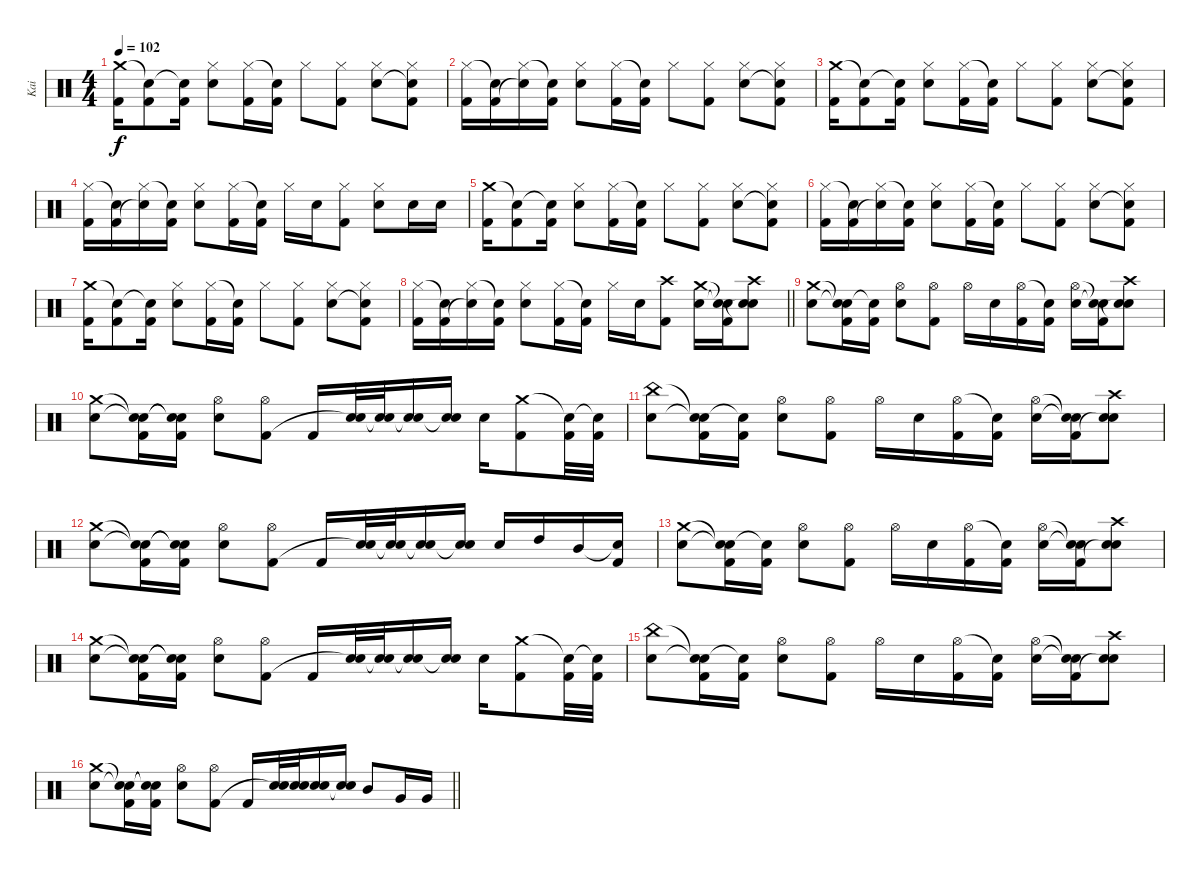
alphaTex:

\track ("Kai" "Kai") {instrument percussion}
\staff {score}
\articulation defaults
\ts (4 4)
\tempo 102
\clef neutral
\ks c
("Crash medium (hit)" "Kick (hit) 2").16{dy f} ("Snare (hit)"{t} "Kick (hit) 2").8 ("Snare (hit)"{t} "Kick (hit) 2").16 ("Hi-Hat (closed)" "Snare (hit) 2").8 ("Hi-Hat (closed)" "Kick (hit) 2").16 ("Snare (hit)"{t} "Kick (hit) 2").16 "Hi-Hat (closed)".8 ("Hi-Hat (closed)" "Kick (hit) 2").8 ("Hi-Hat (closed)" "Snare (hit) 2").8 ("Hi-Hat (closed)" "Snare (hit) 2"{t} "Kick (hit) 2").8 |
("Hi-Hat (closed)" "Kick (hit) 2").16 ("Snare (hit)"{t} "Kick (hit) 2").16 ("Hi-Hat (closed)" "Snare (hit)"{t}).16 ("Snare (hit)"{t} "Kick (hit) 2").16 ("Hi-Hat (closed)" "Snare (hit) 2").8 ("Hi-Hat (closed)" "Kick (hit) 2").16 ("Snare (hit)"{t} "Kick (hit) 2").16 "Hi-Hat (closed)".8 ("Hi-Hat (closed)" "Kick (hit) 2").8 ("Hi-Hat (closed)" "Snare (hit) 2").8 ("Hi-Hat (closed)" "Snare (hit) 2"{t} "Kick (hit) 2").8 |
("Crash medium (hit)" "Kick (hit) 2").16 ("Snare (hit)"{t} "Kick (hit) 2").8 ("Snare (hit)"{t} "Kick (hit) 2").16 ("Hi-Hat (closed)" "Snare (hit) 2").8 ("Hi-Hat (closed)" "Kick (hit) 2").16 ("Snare (hit)"{t} "Kick (hit) 2").16 "Hi-Hat (closed)".8 ("Hi-Hat (closed)" "Kick (hit) 2").8 ("Hi-Hat (closed)" "Snare (hit) 2").8 ("Hi-Hat (closed)" "Snare (hit) 2"{t} "Kick (hit) 2").8 |
("Hi-Hat (closed)" "Kick (hit) 2").16 ("Snare (hit)"{t} "Kick (hit) 2").16 ("Hi-Hat (closed)" "Snare (hit)"{t}).16 ("Snare (hit)"{t} "Kick (hit) 2").16 ("Hi-Hat (closed)" "Snare (hit) 2").8 ("Hi-Hat (closed)" "Kick (hit) 2").16 ("Snare (hit)"{t} "Kick (hit) 2").16 "Hi-Hat (closed)".16 "Snare (hit) 2".16 ("Hi-Hat (closed)" "Kick (hit) 2").8 ("Hi-Hat (closed)" "Snare (hit) 2").8 "Snare (hit) 2".16 "Snare (hit) 2".16 |
("Crash medium (hit)" "Kick (hit) 2").16 ("Snare (hit)"{t} "Kick (hit) 2").8 ("Snare (hit)"{t} "Kick (hit) 2").16 ("Hi-Hat (closed)" "Snare (hit) 2").8 ("Hi-Hat (closed)" "Kick (hit) 2").16 ("Snare (hit)"{t} "Kick (hit) 2").16 "Hi-Hat (closed)".8 ("Hi-Hat (closed)" "Kick (hit) 2").8 ("Hi-Hat (closed)" "Snare (hit) 2").8 ("Hi-Hat (closed)" "Snare (hit) 2"{t} "Kick (hit) 2").8 |
("Hi-Hat (closed)" "Kick (hit) 2").16 ("Snare (hit)"{t} "Kick (hit) 2").16 ("Hi-Hat (closed)" "Snare (hit)"{t}).16 ("Snare (hit)"{t} "Kick (hit) 2").16 ("Hi-Hat (closed)" "Snare (hit) 2").8 ("Hi-Hat (closed)" "Kick (hit) 2").16 ("Snare (hit)"{t} "Kick (hit) 2").16 "Hi-Hat (closed)".8 ("Hi-Hat (closed)" "Kick (hit) 2").8 ("Hi-Hat (closed)" "Snare (hit) 2").8 ("Hi-Hat (closed)" "Snare (hit) 2"{t} "Kick (hit) 2").8 |
("Crash medium (hit)" "Kick (hit) 2").16 ("Snare (hit)"{t} "Kick (hit) 2").8 ("Snare (hit)"{t} "Kick (hit) 2").16 ("Hi-Hat (closed)" "Snare (hit) 2").8 ("Hi-Hat (closed)" "Kick (hit) 2").16 ("Snare (hit)"{t} "Kick (hit) 2").16 "Hi-Hat (closed)".8 ("Hi-Hat (closed)" "Kick (hit) 2").8 ("Hi-Hat (closed)" "Snare (hit) 2").8 ("Hi-Hat (closed)" "Snare (hit) 2"{t} "Kick (hit) 2").8 |
\barLineRight lightlight
("Hi-Hat (closed)" "Kick (hit) 2").16 ("Snare (hit)"{t} "Kick (hit) 2").16 ("Hi-Hat (closed)" "Snare (hit)"{t}).16 ("Snare (hit)"{t} "Kick (hit) 2").16 ("Hi-Hat (closed)" "Snare (hit) 2").8 ("Hi-Hat (closed)" "Kick (hit) 2").16 ("Snare (hit)"{t} "Kick (hit) 2").16 "Hi-Hat (closed)".16 "Snare (hit) 2".16 ("Crash high (hit)" "Kick (hit) 2").8 ("Crash medium (hit)" "Snare (hit) 2").16 ("Snare (hit)"{t} "Snare (hit)"{t} "Kick (hit) 2").16 ("Crash high (hit)" "Snare (hit) 2" "Snare (hit)"{t}).8 |
("Crash medium (hit)" "Snare (hit) 2").8 ("Snare (hit)"{t} "Snare (hit)"{t} "Kick (hit) 2").16 ("Snare (hit)"{t} "Kick (hit) 2").16 ("Hi-Hat (open)" "Snare (hit) 2").8 ("Hi-Hat (open)" "Kick (hit) 2").8 "Hi-Hat (open)".16 "Snare (hit) 2".16 ("Hi-Hat (open)" "Kick (hit) 2").16 ("Snare (hit)"{t} "Kick (hit) 2").16 ("Hi-Hat (open)" "Snare (hit) 2").16 ("Snare (hit)"{t} "Snare (hit)"{t} "Kick (hit) 2").16 ("Crash high (hit)" "Snare (hit) 2" "Snare (hit)"{t}).8 |
("Crash medium (hit)" "Snare (hit) 2").8 ("Snare (hit)"{t} "Snare (hit)"{t} "Kick (hit) 2").16 ("Snare (hit)"{t} "Snare (hit)"{t} "Kick (hit) 2").16 ("Hi-Hat (open)" "Snare (hit) 2").8 ("Hi-Hat (open)" "Kick (hit) 2").8 "Kick (hit) 2".16 ("Snare (hit) 2" "Snare (hit)"{t}).32 ("Snare (hit) 2" "Snare (hit)"{t}).32 ("Snare (hit) 2" "Snare (hit)"{t}).16 ("Snare (hit) 2" "Snare (hit)"{t}).16 "Snare (hit) 2".16 ("Crash medium (hit)" "Kick (hit) 2").8 ("Snare (hit)"{t} "Kick (hit) 2").32 ("Snare (hit)"{t} "Kick (hit) 2").32 |
("China (hit)" "Snare (hit) 2").8 ("Snare (hit)"{t} "Snare (hit)"{t} "Kick (hit) 2").16 ("Snare (hit)"{t} "Kick (hit) 2").16 ("Hi-Hat (open)" "Snare (hit) 2").8 ("Hi-Hat (open)" "Kick (hit) 2").8 "Hi-Hat (open)".16 "Snare (hit) 2".16 ("Hi-Hat (open)" "Kick (hit) 2").16 ("Snare (hit)"{t} "Kick (hit) 2").16 ("Hi-Hat (open)" "Snare (hit) 2").16 ("Snare (hit)"{t} "Snare (hit)"{t} "Kick (hit) 2").16 ("Crash high (hit)" "Snare (hit) 2" "Snare (hit)"{t}).8 |
("Crash medium (hit)" "Snare (hit) 2").8 ("Snare (hit)"{t} "Snare (hit)"{t} "Kick (hit) 2").16 ("Snare (hit)"{t} "Snare (hit)"{t} "Kick (hit) 2").16 ("Hi-Hat (open)" "Snare (hit) 2").8 ("Hi-Hat (open)" "Kick (hit) 2").8 "Kick (hit) 2".16 ("Snare (hit) 2" "Snare (hit)"{t}).32 ("Snare (hit) 2" "Snare (hit)"{t}).32 ("Snare (hit) 2" "Snare (hit)"{t}).16 ("Snare (hit) 2" "Snare (hit)"{t}).16 "Snare (hit) 2".16 "High Tom (hit)".16 "Mid Tom (hit)".16 ("Snare (hit)"{t} "Kick (hit) 2").16 |
("Crash medium (hit)" "Snare (hit) 2").8 ("Snare (hit)"{t} "Snare (hit)"{t} "Kick (hit) 2").16 ("Snare (hit)"{t} "Kick (hit) 2").16 ("Hi-Hat (open)" "Snare (hit) 2").8 ("Hi-Hat (open)" "Kick (hit) 2").8 "Hi-Hat (open)".16 "Snare (hit) 2".16 ("Hi-Hat (open)" "Kick (hit) 2").16 ("Snare (hit)"{t} "Kick (hit) 2").16 ("Hi-Hat (open)" "Snare (hit) 2").16 ("Snare (hit)"{t} "Snare (hit)"{t} "Kick (hit) 2").16 ("Crash high (hit)" "Snare (hit) 2" "Snare (hit)"{t}).8 |
("Crash medium (hit)" "Snare (hit) 2").8 ("Snare (hit)"{t} "Snare (hit)"{t} "Kick (hit) 2").16 ("Snare (hit)"{t} "Snare (hit)"{t} "Kick (hit) 2").16 ("Hi-Hat (open)" "Snare (hit) 2").8 ("Hi-Hat (open)" "Kick (hit) 2").8 "Kick (hit) 2".16 ("Snare (hit) 2" "Snare (hit)"{t}).32 ("Snare (hit) 2" "Snare (hit)"{t}).32 ("Snare (hit) 2" "Snare (hit)"{t}).16 ("Snare (hit) 2" "Snare (hit)"{t}).16 "Snare (hit) 2".16 ("Crash medium (hit)" "Kick (hit) 2").8 ("Snare (hit)"{t} "Kick (hit) 2").32 ("Snare (hit)"{t} "Kick (hit) 2").32 |
("China (hit)" "Snare (hit) 2").8 ("Snare (hit)"{t} "Snare (hit)"{t} "Kick (hit) 2").16 ("Snare (hit)"{t} "Kick (hit) 2").16 ("Hi-Hat (open)" "Snare (hit) 2").8 ("Hi-Hat (open)" "Kick (hit) 2").8 "Hi-Hat (open)".16 "Snare (hit) 2".16 ("Hi-Hat (open)" "Kick (hit) 2").16 ("Snare (hit)"{t} "Kick (hit) 2").16 ("Hi-Hat (open)" "Snare (hit) 2").16 ("Snare (hit)"{t} "Snare (hit)"{t} "Kick (hit) 2").16 ("Crash high (hit)" "Snare (hit) 2" "Snare (hit)"{t}).8 |
\barLineRight lightlight
("Crash medium (hit)" "Snare (hit) 2").8 ("Snare (hit)"{t} "Snare (hit)"{t} "Kick (hit) 2").16 ("Snare (hit)"{t} "Snare (hit)"{t} "Kick (hit) 2").16 ("Hi-Hat (open)" "Snare (hit) 2").8 ("Hi-Hat (open)" "Kick (hit) 2").8 "Kick (hit) 2".16 ("Snare (hit) 2" "Snare (hit)"{t}).32 ("Snare (hit) 2" "Snare (hit)"{t}).32 ("Snare (hit) 2" "Snare (hit)"{t}).16 ("Snare (hit) 2" "Snare (hit)"{t}).16 "Mid Tom (hit)".8 "Very Low Tom (hit)".16 "Very Low Tom (hit)".16
